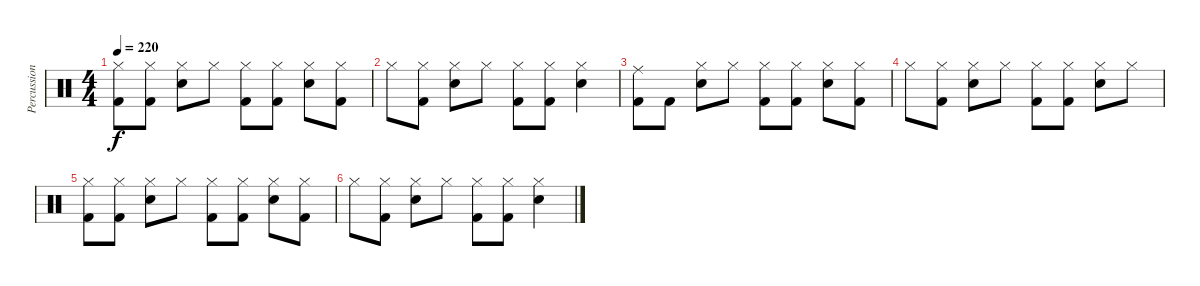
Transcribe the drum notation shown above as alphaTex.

\track ("Percussion" "Percussion") {instrument percussion}
\staff {score}
\articulation defaults
\ts (4 4)
\tempo 220
\clef neutral
\ks c
("Hi-Hat (closed)" "Kick (hit) 2").8{dy f} ("Hi-Hat (closed)" "Kick (hit) 2").8 ("Hi-Hat (closed)" "Electric Snare (hit)").8 "Hi-Hat (closed)".8 ("Hi-Hat (closed)" "Kick (hit) 2").8 ("Hi-Hat (closed)" "Kick (hit) 2").8 ("Hi-Hat (closed)" "Electric Snare (hit)").8 ("Hi-Hat (closed)" "Kick (hit) 2").8 |
"Hi-Hat (closed)".8 ("Hi-Hat (closed)" "Kick (hit) 2").8 ("Hi-Hat (closed)" "Electric Snare (hit)").8 "Hi-Hat (closed)".8 ("Hi-Hat (closed)" "Kick (hit) 2").8 ("Hi-Hat (closed)" "Kick (hit) 2").8 ("Hi-Hat (closed)" "Electric Snare (hit)").4 |
("Ride (middle)" "Kick (hit) 2").8 "Kick (hit) 2".8 ("Hi-Hat (closed)" "Electric Snare (hit)").8 "Hi-Hat (closed)".8 ("Hi-Hat (closed)" "Kick (hit) 2").8 ("Hi-Hat (closed)" "Kick (hit) 2").8 ("Hi-Hat (closed)" "Electric Snare (hit)").8 ("Hi-Hat (closed)" "Kick (hit) 2").8 |
"Hi-Hat (closed)".8 ("Hi-Hat (closed)" "Kick (hit) 2").8 ("Hi-Hat (closed)" "Electric Snare (hit)").8 "Hi-Hat (closed)".8 ("Hi-Hat (closed)" "Kick (hit) 2").8 ("Hi-Hat (closed)" "Kick (hit) 2").8 ("Hi-Hat (closed)" "Electric Snare (hit)").8 "Hi-Hat (closed)".8 |
("Hi-Hat (closed)" "Kick (hit) 2").8 ("Hi-Hat (closed)" "Kick (hit) 2").8 ("Hi-Hat (closed)" "Electric Snare (hit)").8 "Hi-Hat (closed)".8 ("Hi-Hat (closed)" "Kick (hit) 2").8 ("Hi-Hat (closed)" "Kick (hit) 2").8 ("Hi-Hat (closed)" "Electric Snare (hit)").8 ("Hi-Hat (closed)" "Kick (hit) 2").8 |
"Hi-Hat (closed)".8 ("Hi-Hat (closed)" "Kick (hit) 2").8 ("Hi-Hat (closed)" "Electric Snare (hit)").8 "Hi-Hat (closed)".8 ("Hi-Hat (closed)" "Kick (hit) 2").8 ("Hi-Hat (closed)" "Kick (hit) 2").8 ("Hi-Hat (closed)" "Electric Snare (hit)").4
